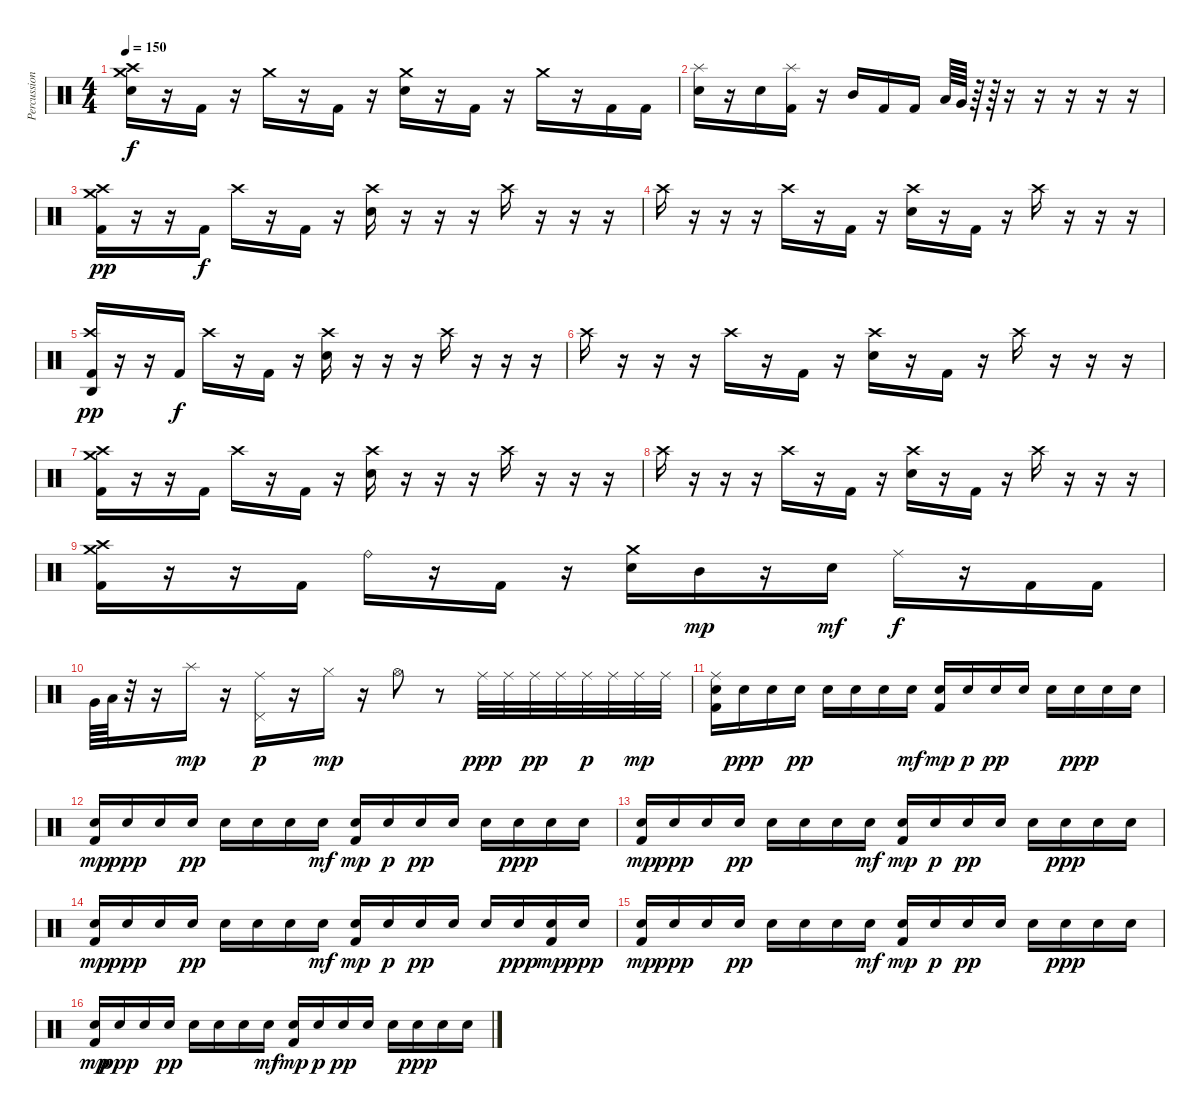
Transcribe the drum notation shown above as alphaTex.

\track ("Percussioni" "Percussion") {instrument percussion}
\staff {score}
\articulation defaults
\ts (4 4)
\tempo 150
\clef neutral
\ks c
("Crash medium (hit)" "Crash high (hit)" "Snare (hit) 2").16{dy f} r.16 "Kick (hit) 2".16 r.16 "Crash medium (hit)".16 r.16 "Kick (hit) 2".16 r.16 ("Crash medium (hit)" "Snare (hit) 2").16 r.16 "Kick (hit) 2".16 r.16 "Crash medium (hit)".16 r.16 "Kick (hit) 2".16 "Kick (hit) 2".16 |
("Snare (hit) 2" "Splash (hit)").16 r.16 "Snare (hit) 2".16 ("Kick (hit) 2" "Splash (hit)").16 r.16 "Mid Tom (hit)".16 "Kick (hit) 2".16 "Kick (hit) 2".16 "Low Tom (hit)".64 "Very Low Tom (hit)".64 r.64 r.64 r.16 r.16 r.16 r.16 r.16 |
("Crash high (hit)" "Kick (hit) 2" "Crash medium (hit)").16{dy pp} r.16 r.16 "Kick (hit) 2".16{dy f} "Crash high (hit)".16 r.16 "Kick (hit) 2".16 r.16 ("Snare (hit) 2" "Crash high (hit)").16 r.16 r.16 r.16 "Crash high (hit)".16 r.16 r.16 r.16 |
"Crash high (hit)".16 r.16 r.16 r.16 "Crash high (hit)".16 r.16 "Kick (hit) 2".16 r.16 ("Snare (hit) 2" "Crash high (hit)").16 r.16 "Kick (hit) 2".16 r.16 "Crash high (hit)".16 r.16 r.16 r.16 |
("Agogo high (hit)" "Kick (hit) 2" "Crash high (hit)").16{dy pp} r.16 r.16 "Kick (hit) 2".16{dy f} "Crash high (hit)".16 r.16 "Kick (hit) 2".16 r.16 ("Snare (hit) 2" "Crash high (hit)").16 r.16 r.16 r.16 "Crash high (hit)".16 r.16 r.16 r.16 |
"Crash high (hit)".16 r.16 r.16 r.16 "Crash high (hit)".16 r.16 "Kick (hit) 2".16 r.16 ("Snare (hit) 2" "Crash high (hit)").16 r.16 "Kick (hit) 2".16 r.16 "Crash high (hit)".16 r.16 r.16 r.16 |
("Crash high (hit)" "Kick (hit) 2" "Crash medium (hit)").16 r.16 r.16 "Kick (hit) 2".16 "Crash high (hit)".16 r.16 "Kick (hit) 2".16 r.16 ("Snare (hit) 2" "Crash high (hit)").16 r.16 r.16 r.16 "Crash high (hit)".16 r.16 r.16 r.16 |
"Crash high (hit)".16 r.16 r.16 r.16 "Crash high (hit)".16 r.16 "Kick (hit) 2".16 r.16 ("Snare (hit) 2" "Crash high (hit)").16 r.16 "Kick (hit) 2".16 r.16 "Crash high (hit)".16 r.16 r.16 r.16 |
("Crash high (hit)" "Kick (hit) 2" "Crash medium (hit)").16 r.16 r.16 "Kick (hit) 2".16 "Ride (bell)".16 r.16 "Kick (hit) 2".16 r.16 ("Snare (hit) 2" "Crash medium (hit)").16 "Mid Tom (hit)".16{dy mp} r.16 "Snare (hit) 2".16{dy mf} "Ride (middle)".16{dy f} r.16 "Kick (hit) 2".16 "Kick (hit) 2".16 |
"Very Low Tom (hit)".64 "Low Floor Tom (hit)".64 r.32 r.16 "Splash (hit)".16{dy mp} r.16 ("Ride (middle)" "Pedal Hi-Hat (hit)").16{dy p} r.16 "Hi-Hat (closed)".16{dy mp} r.16 "Hi-Hat (open)".8 r.8 "Ride (middle)".32{dy ppp} "Ride (middle)".32 "Ride (middle)".32{dy pp} "Ride (middle)".32 "Ride (middle)".32{dy p} "Ride (middle)".32 "Ride (middle)".32{dy mp} "Ride (middle)".32 |
("Snare (hit) 2" "Kick (hit) 2" "Ride (middle)").16 "Snare (hit) 2".16{dy ppp} "Snare (hit) 2".16 "Snare (hit) 2".16{dy pp} "Snare (hit) 2".16 "Snare (hit) 2".16 "Snare (hit) 2".16 "Snare (hit) 2".16{dy mf} ("Snare (hit) 2" "Kick (hit) 2").16{dy mp} "Snare (hit) 2".16{dy p} "Snare (hit) 2".16{dy pp} "Snare (hit) 2".16 "Snare (hit) 2".16 "Snare (hit) 2".16{dy ppp} "Snare (hit) 2".16 "Snare (hit) 2".16 |
("Snare (hit) 2" "Kick (hit) 2").16{dy mp} "Snare (hit) 2".16{dy ppp} "Snare (hit) 2".16 "Snare (hit) 2".16{dy pp} "Snare (hit) 2".16 "Snare (hit) 2".16 "Snare (hit) 2".16 "Snare (hit) 2".16{dy mf} ("Snare (hit) 2" "Kick (hit) 2").16{dy mp} "Snare (hit) 2".16{dy p} "Snare (hit) 2".16{dy pp} "Snare (hit) 2".16 "Snare (hit) 2".16 "Snare (hit) 2".16{dy ppp} "Snare (hit) 2".16 "Snare (hit) 2".16 |
("Snare (hit) 2" "Kick (hit) 2").16{dy mp} "Snare (hit) 2".16{dy ppp} "Snare (hit) 2".16 "Snare (hit) 2".16{dy pp} "Snare (hit) 2".16 "Snare (hit) 2".16 "Snare (hit) 2".16 "Snare (hit) 2".16{dy mf} ("Snare (hit) 2" "Kick (hit) 2").16{dy mp} "Snare (hit) 2".16{dy p} "Snare (hit) 2".16{dy pp} "Snare (hit) 2".16 "Snare (hit) 2".16 "Snare (hit) 2".16{dy ppp} "Snare (hit) 2".16 "Snare (hit) 2".16 |
("Snare (hit) 2" "Kick (hit) 2").16{dy mp} "Snare (hit) 2".16{dy ppp} "Snare (hit) 2".16 "Snare (hit) 2".16{dy pp} "Snare (hit) 2".16 "Snare (hit) 2".16 "Snare (hit) 2".16 "Snare (hit) 2".16{dy mf} ("Snare (hit) 2" "Kick (hit) 2").16{dy mp} "Snare (hit) 2".16{dy p} "Snare (hit) 2".16{dy pp} "Snare (hit) 2".16 "Snare (hit) 2".16 "Snare (hit) 2".16{dy ppp} ("Snare (hit) 2" "Kick (hit) 2").16{dy mp} "Snare (hit) 2".16{dy ppp} |
("Snare (hit) 2" "Kick (hit) 2").16{dy mp} "Snare (hit) 2".16{dy ppp} "Snare (hit) 2".16 "Snare (hit) 2".16{dy pp} "Snare (hit) 2".16 "Snare (hit) 2".16 "Snare (hit) 2".16 "Snare (hit) 2".16{dy mf} ("Snare (hit) 2" "Kick (hit) 2").16{dy mp} "Snare (hit) 2".16{dy p} "Snare (hit) 2".16{dy pp} "Snare (hit) 2".16 "Snare (hit) 2".16 "Snare (hit) 2".16{dy ppp} "Snare (hit) 2".16 "Snare (hit) 2".16 |
("Snare (hit) 2" "Kick (hit) 2").16{dy mp} "Snare (hit) 2".16{dy ppp} "Snare (hit) 2".16 "Snare (hit) 2".16{dy pp} "Snare (hit) 2".16 "Snare (hit) 2".16 "Snare (hit) 2".16 "Snare (hit) 2".16{dy mf} ("Snare (hit) 2" "Kick (hit) 2").16{dy mp} "Snare (hit) 2".16{dy p} "Snare (hit) 2".16{dy pp} "Snare (hit) 2".16 "Snare (hit) 2".16 "Snare (hit) 2".16{dy ppp} "Snare (hit) 2".16 "Snare (hit) 2".16
